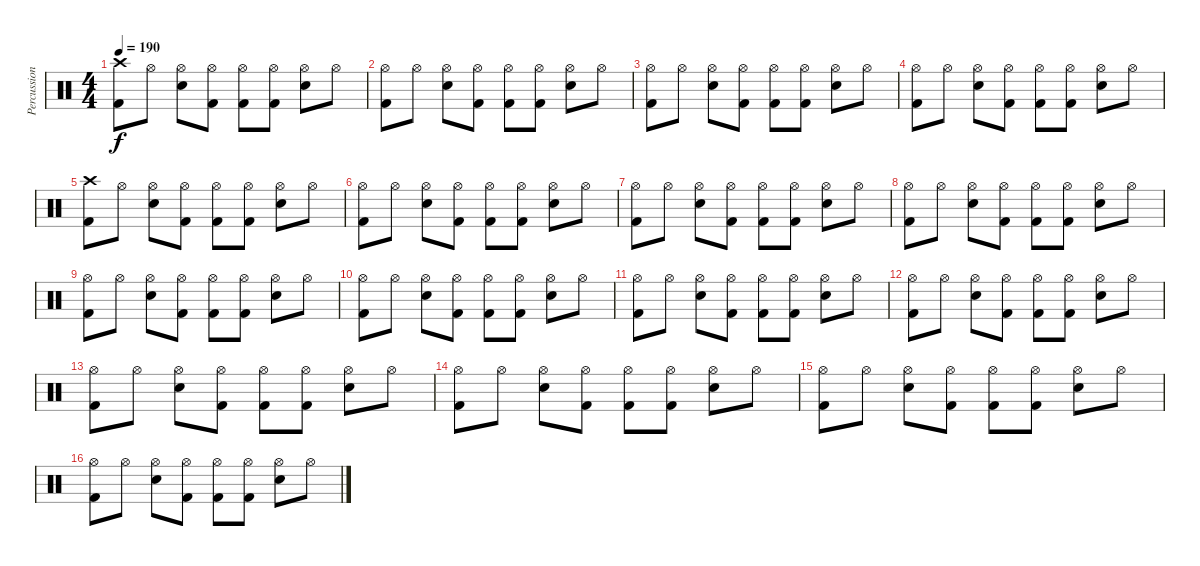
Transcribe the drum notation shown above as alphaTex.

\track ("Percussion" "Percussion") {instrument percussion}
\staff {score}
\articulation defaults
\ts (4 4)
\tempo 190
\clef neutral
\ks c
("Crash high (hit)" "Kick (hit) 2").8{dy f} "Hi-Hat (open)".8 ("Hi-Hat (open)" "Snare (hit) 2").8 ("Hi-Hat (open)" "Kick (hit) 2").8 ("Hi-Hat (open)" "Kick (hit) 2").8 ("Hi-Hat (open)" "Kick (hit) 2").8 ("Hi-Hat (open)" "Snare (hit) 2").8 "Hi-Hat (open)".8 |
("Hi-Hat (open)" "Kick (hit) 2").8 "Hi-Hat (open)".8 ("Hi-Hat (open)" "Snare (hit) 2").8 ("Hi-Hat (open)" "Kick (hit) 2").8 ("Hi-Hat (open)" "Kick (hit) 2").8 ("Hi-Hat (open)" "Kick (hit) 2").8 ("Hi-Hat (open)" "Snare (hit) 2").8 "Hi-Hat (open)".8 |
("Hi-Hat (open)" "Kick (hit) 2").8 "Hi-Hat (open)".8 ("Hi-Hat (open)" "Snare (hit) 2").8 ("Hi-Hat (open)" "Kick (hit) 2").8 ("Hi-Hat (open)" "Kick (hit) 2").8 ("Hi-Hat (open)" "Kick (hit) 2").8 ("Hi-Hat (open)" "Snare (hit) 2").8 "Hi-Hat (open)".8 |
("Hi-Hat (open)" "Kick (hit) 2").8 "Hi-Hat (open)".8 ("Hi-Hat (open)" "Snare (hit) 2").8 ("Hi-Hat (open)" "Kick (hit) 2").8 ("Hi-Hat (open)" "Kick (hit) 2").8 ("Hi-Hat (open)" "Kick (hit) 2").8 ("Hi-Hat (open)" "Snare (hit) 2").8 "Hi-Hat (open)".8 |
("Crash high (hit)" "Kick (hit) 2").8 "Hi-Hat (open)".8 ("Hi-Hat (open)" "Snare (hit) 2").8 ("Hi-Hat (open)" "Kick (hit) 2").8 ("Hi-Hat (open)" "Kick (hit) 2").8 ("Hi-Hat (open)" "Kick (hit) 2").8 ("Hi-Hat (open)" "Snare (hit) 2").8 "Hi-Hat (open)".8 |
("Hi-Hat (open)" "Kick (hit) 2").8 "Hi-Hat (open)".8 ("Hi-Hat (open)" "Snare (hit) 2").8 ("Hi-Hat (open)" "Kick (hit) 2").8 ("Hi-Hat (open)" "Kick (hit) 2").8 ("Hi-Hat (open)" "Kick (hit) 2").8 ("Hi-Hat (open)" "Snare (hit) 2").8 "Hi-Hat (open)".8 |
("Hi-Hat (open)" "Kick (hit) 2").8 "Hi-Hat (open)".8 ("Hi-Hat (open)" "Snare (hit) 2").8 ("Hi-Hat (open)" "Kick (hit) 2").8 ("Hi-Hat (open)" "Kick (hit) 2").8 ("Hi-Hat (open)" "Kick (hit) 2").8 ("Hi-Hat (open)" "Snare (hit) 2").8 "Hi-Hat (open)".8 |
("Hi-Hat (open)" "Kick (hit) 2").8 "Hi-Hat (open)".8 ("Hi-Hat (open)" "Snare (hit) 2").8 ("Hi-Hat (open)" "Kick (hit) 2").8 ("Hi-Hat (open)" "Kick (hit) 2").8 ("Hi-Hat (open)" "Kick (hit) 2").8 ("Hi-Hat (open)" "Snare (hit) 2").8 "Hi-Hat (open)".8 |
("Hi-Hat (open)" "Kick (hit) 2").8 "Hi-Hat (open)".8 ("Hi-Hat (open)" "Snare (hit) 2").8 ("Hi-Hat (open)" "Kick (hit) 2").8 ("Hi-Hat (open)" "Kick (hit) 2").8 ("Hi-Hat (open)" "Kick (hit) 2").8 ("Hi-Hat (open)" "Snare (hit) 2").8 "Hi-Hat (open)".8 |
("Hi-Hat (open)" "Kick (hit) 2").8 "Hi-Hat (open)".8 ("Hi-Hat (open)" "Snare (hit) 2").8 ("Hi-Hat (open)" "Kick (hit) 2").8 ("Hi-Hat (open)" "Kick (hit) 2").8 ("Hi-Hat (open)" "Kick (hit) 2").8 ("Hi-Hat (open)" "Snare (hit) 2").8 "Hi-Hat (open)".8 |
("Hi-Hat (open)" "Kick (hit) 2").8 "Hi-Hat (open)".8 ("Hi-Hat (open)" "Snare (hit) 2").8 ("Hi-Hat (open)" "Kick (hit) 2").8 ("Hi-Hat (open)" "Kick (hit) 2").8 ("Hi-Hat (open)" "Kick (hit) 2").8 ("Hi-Hat (open)" "Snare (hit) 2").8 "Hi-Hat (open)".8 |
("Hi-Hat (open)" "Kick (hit) 2").8 "Hi-Hat (open)".8 ("Hi-Hat (open)" "Snare (hit) 2").8 ("Hi-Hat (open)" "Kick (hit) 2").8 ("Hi-Hat (open)" "Kick (hit) 2").8 ("Hi-Hat (open)" "Kick (hit) 2").8 ("Hi-Hat (open)" "Snare (hit) 2").8 "Hi-Hat (open)".8 |
("Hi-Hat (open)" "Kick (hit) 2").8 "Hi-Hat (open)".8 ("Hi-Hat (open)" "Snare (hit) 2").8 ("Hi-Hat (open)" "Kick (hit) 2").8 ("Hi-Hat (open)" "Kick (hit) 2").8 ("Hi-Hat (open)" "Kick (hit) 2").8 ("Hi-Hat (open)" "Snare (hit) 2").8 "Hi-Hat (open)".8 |
("Hi-Hat (open)" "Kick (hit) 2").8 "Hi-Hat (open)".8 ("Hi-Hat (open)" "Snare (hit) 2").8 ("Hi-Hat (open)" "Kick (hit) 2").8 ("Hi-Hat (open)" "Kick (hit) 2").8 ("Hi-Hat (open)" "Kick (hit) 2").8 ("Hi-Hat (open)" "Snare (hit) 2").8 "Hi-Hat (open)".8 |
("Hi-Hat (open)" "Kick (hit) 2").8 "Hi-Hat (open)".8 ("Hi-Hat (open)" "Snare (hit) 2").8 ("Hi-Hat (open)" "Kick (hit) 2").8 ("Hi-Hat (open)" "Kick (hit) 2").8 ("Hi-Hat (open)" "Kick (hit) 2").8 ("Hi-Hat (open)" "Snare (hit) 2").8 "Hi-Hat (open)".8 |
("Hi-Hat (open)" "Kick (hit) 2").8 "Hi-Hat (open)".8 ("Hi-Hat (open)" "Snare (hit) 2").8 ("Hi-Hat (open)" "Kick (hit) 2").8 ("Hi-Hat (open)" "Kick (hit) 2").8 ("Hi-Hat (open)" "Kick (hit) 2").8 ("Hi-Hat (open)" "Snare (hit) 2").8 "Hi-Hat (open)".8
